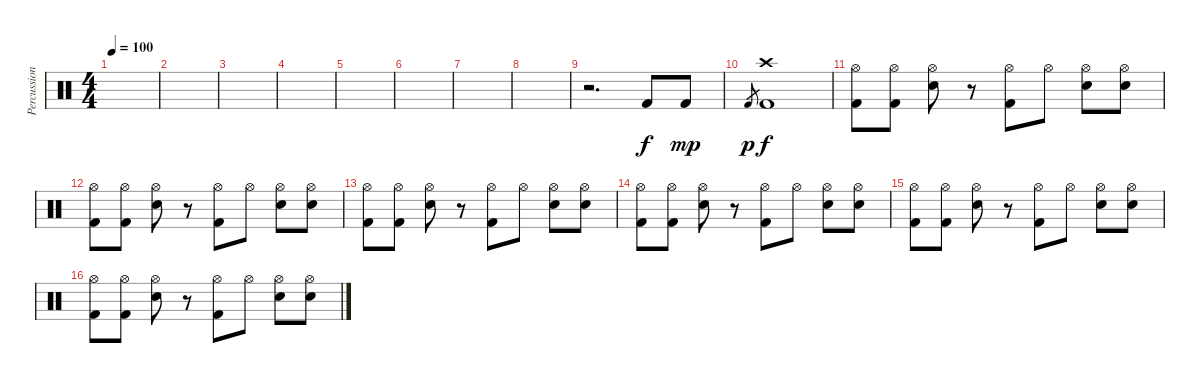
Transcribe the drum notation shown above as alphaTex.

\track ("Percussion" "Percussion") {instrument percussion}
\staff {score}
\articulation defaults
\ts (4 4)
\tempo 100
\clef neutral
\ks c
|
|
|
|
|
|
|
|
r.2{d} "Kick (hit) 2".8 "Kick (hit) 2".8{dy mp} |
"Kick (hit) 2".8{gr dy p} ("Crash high (hit)" "Kick (hit) 2").1{dy f} |
("Hi-Hat (open)" "Kick (hit) 2").8 ("Hi-Hat (open)" "Kick (hit) 2").8 ("Hi-Hat (open)" "Snare (hit) 2").8 r.8 ("Hi-Hat (open)" "Kick (hit) 2").8 "Hi-Hat (open)".8 ("Hi-Hat (open)" "Snare (hit) 2").8 ("Hi-Hat (open)" "Snare (hit) 2").8 |
("Hi-Hat (open)" "Kick (hit) 2").8 ("Hi-Hat (open)" "Kick (hit) 2").8 ("Hi-Hat (open)" "Snare (hit) 2").8 r.8 ("Hi-Hat (open)" "Kick (hit) 2").8 "Hi-Hat (open)".8 ("Hi-Hat (open)" "Snare (hit) 2").8 ("Hi-Hat (open)" "Snare (hit) 2").8 |
("Hi-Hat (open)" "Kick (hit) 2").8 ("Hi-Hat (open)" "Kick (hit) 2").8 ("Hi-Hat (open)" "Snare (hit) 2").8 r.8 ("Hi-Hat (open)" "Kick (hit) 2").8 "Hi-Hat (open)".8 ("Hi-Hat (open)" "Snare (hit) 2").8 ("Hi-Hat (open)" "Snare (hit) 2").8 |
("Hi-Hat (open)" "Kick (hit) 2").8 ("Hi-Hat (open)" "Kick (hit) 2").8 ("Hi-Hat (open)" "Snare (hit) 2").8 r.8 ("Hi-Hat (open)" "Kick (hit) 2").8 "Hi-Hat (open)".8 ("Hi-Hat (open)" "Snare (hit) 2").8 ("Hi-Hat (open)" "Snare (hit) 2").8 |
("Hi-Hat (open)" "Kick (hit) 2").8 ("Hi-Hat (open)" "Kick (hit) 2").8 ("Hi-Hat (open)" "Snare (hit) 2").8 r.8 ("Hi-Hat (open)" "Kick (hit) 2").8 "Hi-Hat (open)".8 ("Hi-Hat (open)" "Snare (hit) 2").8 ("Hi-Hat (open)" "Snare (hit) 2").8 |
("Hi-Hat (open)" "Kick (hit) 2").8 ("Hi-Hat (open)" "Kick (hit) 2").8 ("Hi-Hat (open)" "Snare (hit) 2").8 r.8 ("Hi-Hat (open)" "Kick (hit) 2").8 "Hi-Hat (open)".8 ("Hi-Hat (open)" "Snare (hit) 2").8 ("Hi-Hat (open)" "Snare (hit) 2").8
